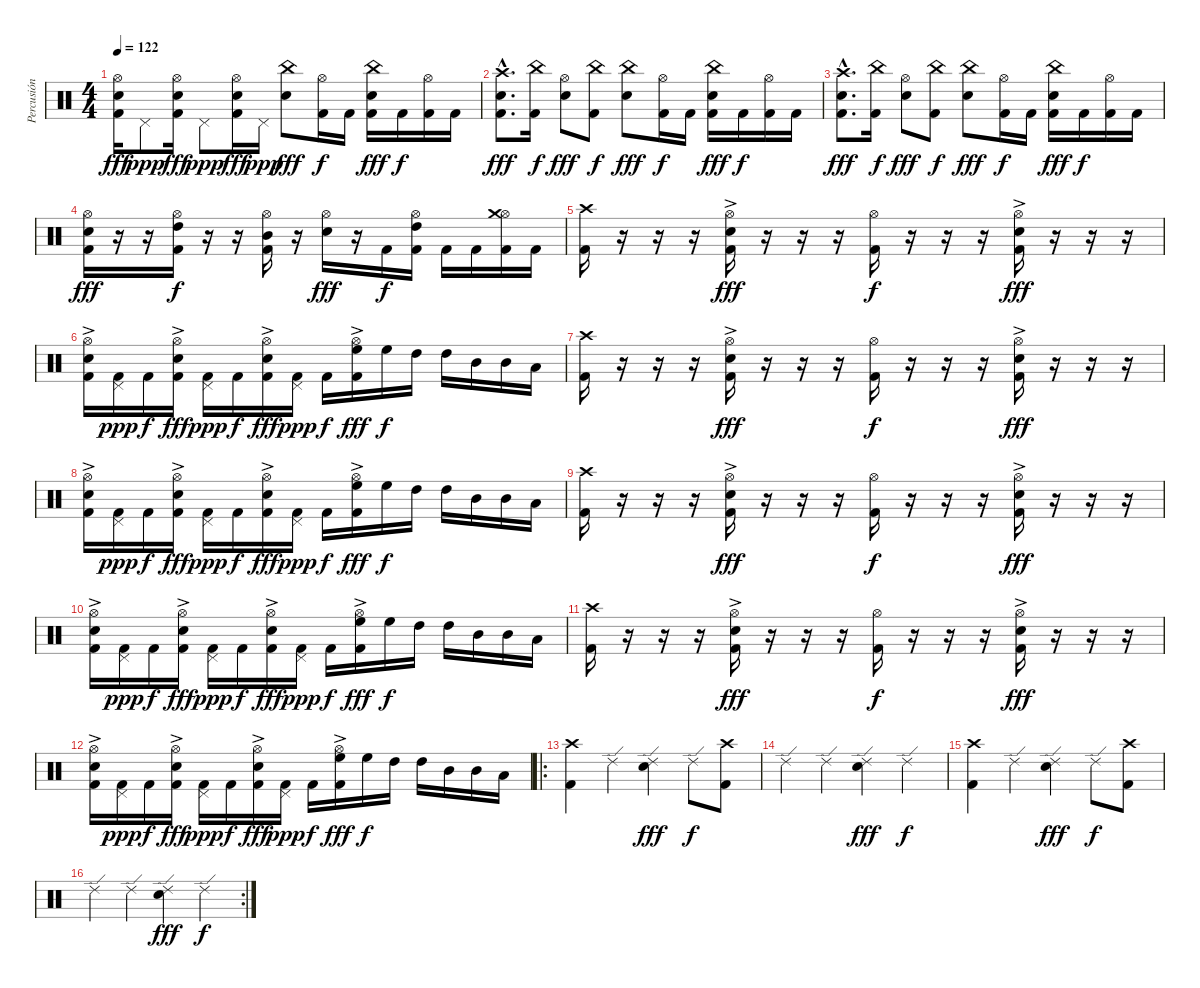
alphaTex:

\track ("Percusión" "Percusión") {instrument percussion}
\staff {score}
\articulation defaults
\ts (4 4)
\tempo 122
\clef neutral
\ks c
("Hi-Hat (open)" "Electric Snare (hit)" "Kick (hit) 2").16{dy fff} "Pedal Hi-Hat (hit)".8{dy ppp} ("Hi-Hat (open)" "Electric Snare (hit)" "Kick (hit) 2").16{dy fff} "Pedal Hi-Hat (hit)".8{dy ppp} ("Hi-Hat (open)" "Electric Snare (hit)" "Kick (hit) 2").16{dy fff} "Pedal Hi-Hat (hit)".16{dy ppp} ("China (hit)" "Electric Snare (hit)").8{dy fff} ("Hi-Hat (open)" "Kick (hit) 2").16{dy f} "Kick (hit) 2".16 ("China (hit)" "Electric Snare (hit)" "Kick (hit) 2").16{dy fff} "Kick (hit) 2".16{dy f} ("Hi-Hat (open)" "Kick (hit) 2").16 "Kick (hit) 2".16 |
("Crash high (hit)"{hac} "Electric Snare (hit)"{hac} "Kick (hit) 2"{hac}).8{d dy fff} ("China (hit)" "Kick (hit) 2").16{dy f} ("Hi-Hat (open)" "Electric Snare (hit)").8{dy fff} ("China (hit)" "Kick (hit) 2").8{dy f} ("China (hit)" "Electric Snare (hit)").8{dy fff} ("Hi-Hat (open)" "Kick (hit) 2").16{dy f} "Kick (hit) 2".16 ("China (hit)" "Electric Snare (hit)" "Kick (hit) 2").16{dy fff} "Kick (hit) 2".16{dy f} ("Hi-Hat (open)" "Kick (hit) 2").16 "Kick (hit) 2".16 |
("Crash high (hit)"{hac} "Electric Snare (hit)"{hac} "Kick (hit) 2"{hac}).8{d dy fff} ("China (hit)" "Kick (hit) 2").16{dy f} ("Hi-Hat (open)" "Electric Snare (hit)").8{dy fff} ("China (hit)" "Kick (hit) 2").8{dy f} ("China (hit)" "Electric Snare (hit)").8{dy fff} ("Hi-Hat (open)" "Kick (hit) 2").16{dy f} "Kick (hit) 2".16 ("China (hit)" "Electric Snare (hit)" "Kick (hit) 2").16{dy fff} "Kick (hit) 2".16{dy f} ("Hi-Hat (open)" "Kick (hit) 2").16 "Kick (hit) 2".16 |
("Hi-Hat (open)" "Electric Snare (hit)" "Kick (hit) 2").16{dy fff} r.16 r.16 ("Hi-Hat (open)" "High Tom (hit)" "Kick (hit) 2").16{dy f} r.16 r.16 ("Hi-Hat (open)" "Mid Tom (hit)" "Kick (hit) 2").16 r.16 ("Hi-Hat (open)" "Electric Snare (hit)").16{dy fff} r.16 "Kick (hit) 2".16{dy f} ("Hi-Hat (open)" "High Tom (hit)" "Kick (hit) 2").16 "Kick (hit) 2".16 "Kick (hit) 2".16 ("Hi-Hat (open)" "Crash medium (hit)" "Kick (hit) 2").16 "Kick (hit) 2".16 |
("Crash high (hit)" "Kick (hit) 2").16 r.16 r.16 r.16 ("Hi-Hat (open)" "Electric Snare (hit)"{ac} "Kick (hit) 2").16{dy fff} r.16 r.16 r.16 ("Hi-Hat (open)" "Kick (hit) 2").16{dy f} r.16 r.16 r.16 ("Hi-Hat (open)" "Electric Snare (hit)"{ac} "Kick (hit) 2").16{dy fff} r.16 r.16 r.16 |
("Hi-Hat (open)"{ac} "Electric Snare (hit)"{ac} "Kick (hit) 2").16 ("Pedal Hi-Hat (hit)" "Kick (hit) 2").16{dy ppp} "Kick (hit) 2".16{dy f} ("Hi-Hat (open)"{ac} "Electric Snare (hit)"{ac} "Kick (hit) 2").16{dy fff} ("Pedal Hi-Hat (hit)" "Kick (hit) 2").16{dy ppp} "Kick (hit) 2".16{dy f} ("Hi-Hat (open)"{ac} "Electric Snare (hit)"{ac} "Kick (hit) 2").16{dy fff} ("Pedal Hi-Hat (hit)" "Kick (hit) 2").16{dy ppp} "Kick (hit) 2".16{dy f} ("Hi-Hat (open)"{ac} "High Floor Tom (hit)" "Kick (hit) 2").16{dy fff} "High Floor Tom (hit)".16{dy f} "High Tom (hit)".16 "High Tom (hit)".16 "Mid Tom (hit)".16 "Mid Tom (hit)".16 "Low Tom (hit)".16 |
("Crash high (hit)" "Kick (hit) 2").16 r.16 r.16 r.16 ("Hi-Hat (open)" "Electric Snare (hit)"{ac} "Kick (hit) 2").16{dy fff} r.16 r.16 r.16 ("Hi-Hat (open)" "Kick (hit) 2").16{dy f} r.16 r.16 r.16 ("Hi-Hat (open)" "Electric Snare (hit)"{ac} "Kick (hit) 2").16{dy fff} r.16 r.16 r.16 |
("Hi-Hat (open)"{ac} "Electric Snare (hit)"{ac} "Kick (hit) 2").16 ("Pedal Hi-Hat (hit)" "Kick (hit) 2").16{dy ppp} "Kick (hit) 2".16{dy f} ("Hi-Hat (open)"{ac} "Electric Snare (hit)"{ac} "Kick (hit) 2").16{dy fff} ("Pedal Hi-Hat (hit)" "Kick (hit) 2").16{dy ppp} "Kick (hit) 2".16{dy f} ("Hi-Hat (open)"{ac} "Electric Snare (hit)"{ac} "Kick (hit) 2").16{dy fff} ("Pedal Hi-Hat (hit)" "Kick (hit) 2").16{dy ppp} "Kick (hit) 2".16{dy f} ("Hi-Hat (open)"{ac} "High Floor Tom (hit)" "Kick (hit) 2").16{dy fff} "High Floor Tom (hit)".16{dy f} "High Tom (hit)".16 "High Tom (hit)".16 "Mid Tom (hit)".16 "Mid Tom (hit)".16 "Low Tom (hit)".16 |
("Crash high (hit)" "Kick (hit) 2").16 r.16 r.16 r.16 ("Hi-Hat (open)" "Electric Snare (hit)"{ac} "Kick (hit) 2").16{dy fff} r.16 r.16 r.16 ("Hi-Hat (open)" "Kick (hit) 2").16{dy f} r.16 r.16 r.16 ("Hi-Hat (open)" "Electric Snare (hit)"{ac} "Kick (hit) 2").16{dy fff} r.16 r.16 r.16 |
("Hi-Hat (open)"{ac} "Electric Snare (hit)"{ac} "Kick (hit) 2").16 ("Pedal Hi-Hat (hit)" "Kick (hit) 2").16{dy ppp} "Kick (hit) 2".16{dy f} ("Hi-Hat (open)"{ac} "Electric Snare (hit)"{ac} "Kick (hit) 2").16{dy fff} ("Pedal Hi-Hat (hit)" "Kick (hit) 2").16{dy ppp} "Kick (hit) 2".16{dy f} ("Hi-Hat (open)"{ac} "Electric Snare (hit)"{ac} "Kick (hit) 2").16{dy fff} ("Pedal Hi-Hat (hit)" "Kick (hit) 2").16{dy ppp} "Kick (hit) 2".16{dy f} ("Hi-Hat (open)"{ac} "High Floor Tom (hit)" "Kick (hit) 2").16{dy fff} "High Floor Tom (hit)".16{dy f} "High Tom (hit)".16 "High Tom (hit)".16 "Mid Tom (hit)".16 "Mid Tom (hit)".16 "Low Tom (hit)".16 |
("Crash high (hit)" "Kick (hit) 2").16 r.16 r.16 r.16 ("Hi-Hat (open)" "Electric Snare (hit)"{ac} "Kick (hit) 2").16{dy fff} r.16 r.16 r.16 ("Hi-Hat (open)" "Kick (hit) 2").16{dy f} r.16 r.16 r.16 ("Hi-Hat (open)" "Electric Snare (hit)"{ac} "Kick (hit) 2").16{dy fff} r.16 r.16 r.16 |
("Hi-Hat (open)"{ac} "Electric Snare (hit)"{ac} "Kick (hit) 2").16 ("Pedal Hi-Hat (hit)" "Kick (hit) 2").16{dy ppp} "Kick (hit) 2".16{dy f} ("Hi-Hat (open)"{ac} "Electric Snare (hit)"{ac} "Kick (hit) 2").16{dy fff} ("Pedal Hi-Hat (hit)" "Kick (hit) 2").16{dy ppp} "Kick (hit) 2".16{dy f} ("Hi-Hat (open)"{ac} "Electric Snare (hit)"{ac} "Kick (hit) 2").16{dy fff} ("Pedal Hi-Hat (hit)" "Kick (hit) 2").16{dy ppp} "Kick (hit) 2".16{dy f} ("Hi-Hat (open)"{ac} "High Floor Tom (hit)" "Kick (hit) 2").16{dy fff} "High Floor Tom (hit)".16{dy f} "High Tom (hit)".16 "High Tom (hit)".16 "Mid Tom (hit)".16 "Mid Tom (hit)".16 "Low Tom (hit)".16 |
\ro
("Crash high (hit)" "Kick (hit) 2").4 "Ride (edge) 2".4 ("Ride (edge) 2" "Electric Snare (hit)").4{dy fff} "Ride (edge) 2".8{dy f} ("Crash high (hit)" "Kick (hit) 2").8 |
"Ride (edge) 2".4 "Ride (edge) 2".4 ("Ride (edge) 2" "Electric Snare (hit)").4{dy fff} "Ride (edge) 2".4{dy f} |
("Crash high (hit)" "Kick (hit) 2").4 "Ride (edge) 2".4 ("Ride (edge) 2" "Electric Snare (hit)").4{dy fff} "Ride (edge) 2".8{dy f} ("Crash high (hit)" "Kick (hit) 2").8 |
\rc 2 "Ride (edge) 2".4 "Ride (edge) 2".4
("Ride (edge) 2" "Electric Snare (hit)").4{dy fff} "Ride (edge) 2".4{dy f}
